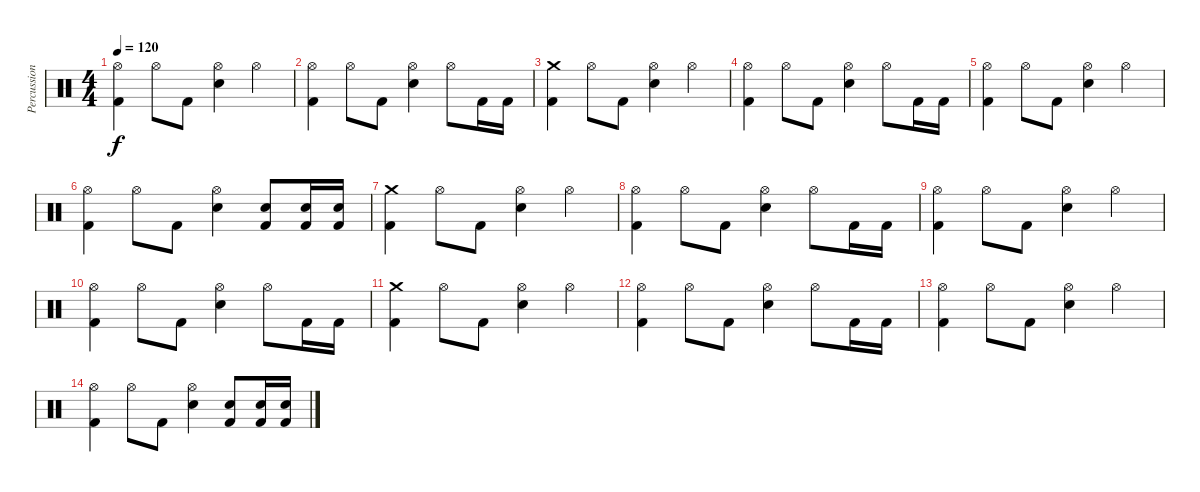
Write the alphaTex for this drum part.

\track ("Percussion" "Percussion") {instrument percussion}
\staff {score}
\articulation defaults
\ts (4 4)
\tempo 120
\clef neutral
\ks c
("Hi-Hat (open)" "Kick (hit) 2").4{dy f} "Hi-Hat (open)".8 "Kick (hit) 2".8 ("Hi-Hat (open)" "Electric Snare (hit)").4 "Hi-Hat (open)".4 |
("Hi-Hat (open)" "Kick (hit) 2").4 "Hi-Hat (open)".8 "Kick (hit) 2".8 ("Hi-Hat (open)" "Electric Snare (hit)").4 "Hi-Hat (open)".8 "Kick (hit) 2".16 "Kick (hit) 2".16 |
("Crash medium (hit)" "Kick (hit) 2").4 "Hi-Hat (open)".8 "Kick (hit) 2".8 ("Hi-Hat (open)" "Electric Snare (hit)").4 "Hi-Hat (open)".4 |
("Hi-Hat (open)" "Kick (hit) 2").4 "Hi-Hat (open)".8 "Kick (hit) 2".8 ("Hi-Hat (open)" "Electric Snare (hit)").4 "Hi-Hat (open)".8 "Kick (hit) 2".16 "Kick (hit) 2".16 |
("Hi-Hat (open)" "Kick (hit) 2").4 "Hi-Hat (open)".8 "Kick (hit) 2".8 ("Hi-Hat (open)" "Electric Snare (hit)").4 "Hi-Hat (open)".4 |
("Hi-Hat (open)" "Kick (hit) 2").4 "Hi-Hat (open)".8 "Kick (hit) 2".8 ("Hi-Hat (open)" "Electric Snare (hit)").4 ("Electric Snare (hit)" "Kick (hit) 2").8 ("Electric Snare (hit)" "Kick (hit) 2").16 ("Electric Snare (hit)" "Kick (hit) 2").16 |
("Crash medium (hit)" "Kick (hit) 2").4 "Hi-Hat (open)".8 "Kick (hit) 2".8 ("Hi-Hat (open)" "Electric Snare (hit)").4 "Hi-Hat (open)".4 |
("Hi-Hat (open)" "Kick (hit) 2").4 "Hi-Hat (open)".8 "Kick (hit) 2".8 ("Hi-Hat (open)" "Electric Snare (hit)").4 "Hi-Hat (open)".8 "Kick (hit) 2".16 "Kick (hit) 2".16 |
("Hi-Hat (open)" "Kick (hit) 2").4 "Hi-Hat (open)".8 "Kick (hit) 2".8 ("Hi-Hat (open)" "Electric Snare (hit)").4 "Hi-Hat (open)".4 |
("Hi-Hat (open)" "Kick (hit) 2").4 "Hi-Hat (open)".8 "Kick (hit) 2".8 ("Hi-Hat (open)" "Electric Snare (hit)").4 "Hi-Hat (open)".8 "Kick (hit) 2".16 "Kick (hit) 2".16 |
("Crash medium (hit)" "Kick (hit) 2").4 "Hi-Hat (open)".8 "Kick (hit) 2".8 ("Hi-Hat (open)" "Electric Snare (hit)").4 "Hi-Hat (open)".4 |
("Hi-Hat (open)" "Kick (hit) 2").4 "Hi-Hat (open)".8 "Kick (hit) 2".8 ("Hi-Hat (open)" "Electric Snare (hit)").4 "Hi-Hat (open)".8 "Kick (hit) 2".16 "Kick (hit) 2".16 |
("Hi-Hat (open)" "Kick (hit) 2").4 "Hi-Hat (open)".8 "Kick (hit) 2".8 ("Hi-Hat (open)" "Electric Snare (hit)").4 "Hi-Hat (open)".4 |
("Hi-Hat (open)" "Kick (hit) 2").4 "Hi-Hat (open)".8 "Kick (hit) 2".8 ("Hi-Hat (open)" "Electric Snare (hit)").4 ("Electric Snare (hit)" "Kick (hit) 2").8 ("Electric Snare (hit)" "Kick (hit) 2").16 ("Electric Snare (hit)" "Kick (hit) 2").16
